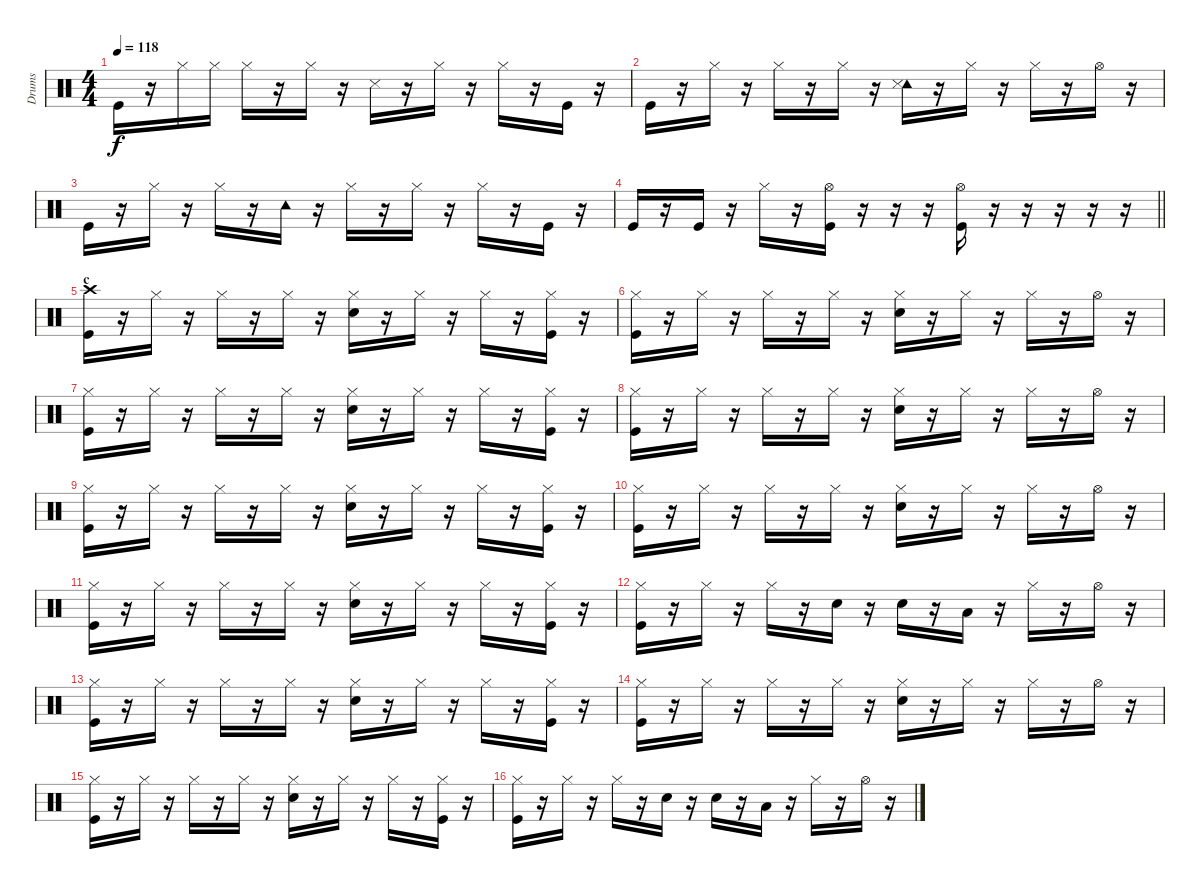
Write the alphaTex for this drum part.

\track ("Drums" "Drums") {instrument percussion}
\staff {score}
\articulation defaults
\ts (4 4)
\tempo 118
\clef neutral
\ks c "Kick (hit)".16{dy f}
r.16 "Hi-Hat (closed)".16 "Hi-Hat (closed)".16 "Hi-Hat (closed)".16 r.16 "Hi-Hat (closed)".16 r.16 "Snare (side stick) 3".16 r.16 "Hi-Hat (closed)".16 r.16 "Hi-Hat (closed)".16 r.16 "Kick (hit)".16 r.16 |
"Kick (hit)".16 r.16 "Hi-Hat (closed)".16 r.16 "Hi-Hat (closed)".16 r.16 "Hi-Hat (closed)".16 r.16 ("Tambourine (hit)" "Snare (side stick) 3").16 r.16 "Hi-Hat (closed)".16 r.16 "Hi-Hat (closed)".16 r.16 "Hi-Hat (open)".16 r.16 |
"Kick (hit)".16 r.16 "Hi-Hat (closed)".16 r.16 "Hi-Hat (closed)".16 r.16 "Tambourine (hit)".16 r.16 "Hi-Hat (closed)".16 r.16 "Hi-Hat (closed)".16 r.16 "Hi-Hat (closed)".16 r.16 "Kick (hit)".16 r.16 |
\barLineRight lightlight "Kick (hit)".16
r.16 "Kick (hit)".16 r.16 "Hi-Hat (closed)".16 r.16 ("Kick (hit)" "Hi-Hat (open)").16 r.16 r.16 r.16 ("Kick (hit)" "Hi-Hat (open)").16 r.16 r.16 r.16 r.16 r.16 |
\section ("" "c")
("Crash high (hit)" "Kick (hit)").16 r.16 "Hi-Hat (closed)".16 r.16 "Hi-Hat (closed)".16 r.16 "Hi-Hat (closed)".16 r.16 ("Hi-Hat (closed)" "Snare (hit) 2").16 r.16 "Hi-Hat (closed)".16 r.16 "Hi-Hat (closed)".16 r.16 ("Hi-Hat (closed)" "Kick (hit)").16 r.16 |
("Hi-Hat (closed)" "Kick (hit)").16 r.16 "Hi-Hat (closed)".16 r.16 "Hi-Hat (closed)".16 r.16 "Hi-Hat (closed)".16 r.16 ("Hi-Hat (closed)" "Snare (hit) 2").16 r.16 "Hi-Hat (closed)".16 r.16 "Hi-Hat (closed)".16 r.16 "Hi-Hat (open)".16 r.16 |
("Hi-Hat (closed)" "Kick (hit)").16 r.16 "Hi-Hat (closed)".16 r.16 "Hi-Hat (closed)".16 r.16 "Hi-Hat (closed)".16 r.16 ("Hi-Hat (closed)" "Snare (hit) 2").16 r.16 "Hi-Hat (closed)".16 r.16 "Hi-Hat (closed)".16 r.16 ("Hi-Hat (closed)" "Kick (hit)").16 r.16 |
("Hi-Hat (closed)" "Kick (hit)").16 r.16 "Hi-Hat (closed)".16 r.16 "Hi-Hat (closed)".16 r.16 "Hi-Hat (closed)".16 r.16 ("Hi-Hat (closed)" "Snare (hit) 2").16 r.16 "Hi-Hat (closed)".16 r.16 "Hi-Hat (closed)".16 r.16 "Hi-Hat (open)".16 r.16 |
("Hi-Hat (closed)" "Kick (hit)").16 r.16 "Hi-Hat (closed)".16 r.16 "Hi-Hat (closed)".16 r.16 "Hi-Hat (closed)".16 r.16 ("Hi-Hat (closed)" "Snare (hit) 2").16 r.16 "Hi-Hat (closed)".16 r.16 "Hi-Hat (closed)".16 r.16 ("Hi-Hat (closed)" "Kick (hit)").16 r.16 |
("Hi-Hat (closed)" "Kick (hit)").16 r.16 "Hi-Hat (closed)".16 r.16 "Hi-Hat (closed)".16 r.16 "Hi-Hat (closed)".16 r.16 ("Hi-Hat (closed)" "Snare (hit) 2").16 r.16 "Hi-Hat (closed)".16 r.16 "Hi-Hat (closed)".16 r.16 "Hi-Hat (open)".16 r.16 |
("Hi-Hat (closed)" "Kick (hit)").16 r.16 "Hi-Hat (closed)".16 r.16 "Hi-Hat (closed)".16 r.16 "Hi-Hat (closed)".16 r.16 ("Hi-Hat (closed)" "Snare (hit) 2").16 r.16 "Hi-Hat (closed)".16 r.16 "Hi-Hat (closed)".16 r.16 ("Hi-Hat (closed)" "Kick (hit)").16 r.16 |
("Hi-Hat (closed)" "Kick (hit)").16 r.16 "Hi-Hat (closed)".16 r.16 "Hi-Hat (closed)".16 r.16 "Snare (hit) 2".16 r.16 "Snare (hit) 2".16 r.16 "Low Tom (hit)".16 r.16 "Hi-Hat (closed)".16 r.16 "Hi-Hat (open)".16 r.16 |
("Hi-Hat (closed)" "Kick (hit)").16 r.16 "Hi-Hat (closed)".16 r.16 "Hi-Hat (closed)".16 r.16 "Hi-Hat (closed)".16 r.16 ("Hi-Hat (closed)" "Snare (hit) 2").16 r.16 "Hi-Hat (closed)".16 r.16 "Hi-Hat (closed)".16 r.16 ("Hi-Hat (closed)" "Kick (hit)").16 r.16 |
("Hi-Hat (closed)" "Kick (hit)").16 r.16 "Hi-Hat (closed)".16 r.16 "Hi-Hat (closed)".16 r.16 "Hi-Hat (closed)".16 r.16 ("Hi-Hat (closed)" "Snare (hit) 2").16 r.16 "Hi-Hat (closed)".16 r.16 "Hi-Hat (closed)".16 r.16 "Hi-Hat (open)".16 r.16 |
("Hi-Hat (closed)" "Kick (hit)").16 r.16 "Hi-Hat (closed)".16 r.16 "Hi-Hat (closed)".16 r.16 "Hi-Hat (closed)".16 r.16 ("Hi-Hat (closed)" "Snare (hit) 2").16 r.16 "Hi-Hat (closed)".16 r.16 "Hi-Hat (closed)".16 r.16 ("Hi-Hat (closed)" "Kick (hit)").16 r.16 |
("Hi-Hat (closed)" "Kick (hit)").16 r.16 "Hi-Hat (closed)".16 r.16 "Hi-Hat (closed)".16 r.16 "Snare (hit) 2".16 r.16 "Snare (hit) 2".16 r.16 "Low Tom (hit)".16 r.16 "Hi-Hat (closed)".16 r.16 "Hi-Hat (open)".16 r.16
